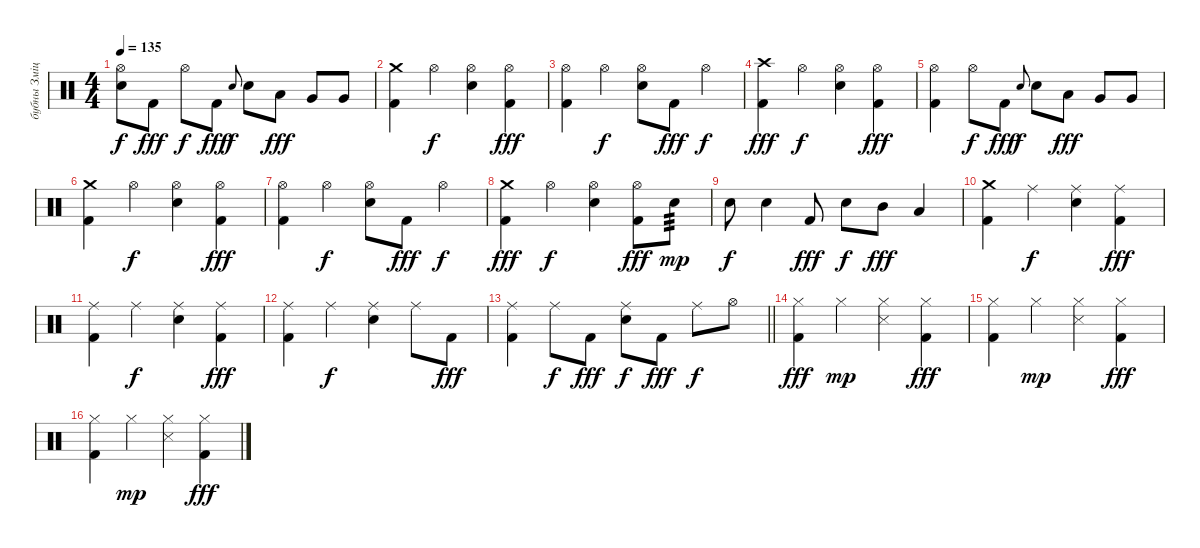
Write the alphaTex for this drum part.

\track ("бубны Змiцер" "бубны Змiц") {solo instrument percussion}
\staff {score}
\articulation defaults
\ts (4 4)
\tempo 135
\clef neutral
\ks c
("Hi-Hat (open)" "Electric Snare (hit)").8{dy f} "Kick (hit) 2".8{dy fff} "Hi-Hat (open)".8{dy f} "Kick (hit) 2".8{dy fff} "Electric Snare (hit)".8{gr onbeat dy f} "Electric Snare (hit)".8 "Low Tom (hit)".8{dy fff} "Very Low Tom (hit)".8 "Very Low Tom (hit)".8 |
("Crash medium (hit)" "Kick (hit) 2").4 "Hi-Hat (open)".4{dy f} ("Hi-Hat (open)" "Electric Snare (hit)").4 ("Hi-Hat (open)" "Kick (hit) 2").4{dy fff} |
("Hi-Hat (open)" "Kick (hit) 2").4 "Hi-Hat (open)".4{dy f} ("Hi-Hat (open)" "Electric Snare (hit)").8 "Kick (hit) 2".8{dy fff} "Hi-Hat (open)".4{dy f} |
("Crash high (hit)" "Kick (hit) 2").4{dy fff} "Hi-Hat (open)".4{dy f} ("Hi-Hat (open)" "Electric Snare (hit)").4 ("Hi-Hat (open)" "Kick (hit) 2").4{dy fff} |
("Hi-Hat (open)" "Kick (hit) 2").4 "Hi-Hat (open)".8{dy f} "Kick (hit) 2".8{dy fff} "Electric Snare (hit)".8{gr onbeat dy f} "Electric Snare (hit)".8 "Low Tom (hit)".8{dy fff} "Very Low Tom (hit)".8 "Very Low Tom (hit)".8 |
("Crash medium (hit)" "Kick (hit) 2").4 "Hi-Hat (open)".4{dy f} ("Hi-Hat (open)" "Electric Snare (hit)").4 ("Hi-Hat (open)" "Kick (hit) 2").4{dy fff} |
("Hi-Hat (open)" "Kick (hit) 2").4 "Hi-Hat (open)".4{dy f} ("Hi-Hat (open)" "Electric Snare (hit)").8 "Kick (hit) 2".8{dy fff} "Hi-Hat (open)".4{dy f} |
("Crash medium (hit)" "Kick (hit) 2").4{dy fff} "Hi-Hat (open)".4{dy f} ("Hi-Hat (open)" "Electric Snare (hit)").4 ("Hi-Hat (open)" "Kick (hit) 2").8{dy fff} "Electric Snare (hit)".8{tp 3 dy mp} |
"Electric Snare (hit)".8{dy f} "Electric Snare (hit)".4 "Kick (hit) 2".8{dy fff} "Electric Snare (hit)".8{dy f} "Mid Tom (hit)".8{dy fff} "Low Tom (hit)".4 |
("Crash medium (hit)" "Kick (hit) 2").4 "Ride (middle)".4{dy f} ("Ride (middle)" "Electric Snare (hit)").4 ("Ride (middle)" "Kick (hit) 2").4{dy fff} |
("Ride (middle)" "Kick (hit) 2").4 "Ride (middle)".4{dy f} ("Ride (middle)" "Electric Snare (hit)").4 ("Ride (middle)" "Kick (hit) 2").4{dy fff} |
("Ride (middle)" "Kick (hit) 2").4 "Ride (middle)".4{dy f} ("Ride (middle)" "Electric Snare (hit)").4 "Ride (middle)".8 "Kick (hit) 2".8{dy fff} |
\barLineRight lightlight
("Ride (middle)" "Kick (hit) 2").4 "Ride (middle)".8{dy f} "Kick (hit) 2".8{dy fff} ("Ride (middle)" "Electric Snare (hit)").8{dy f} "Kick (hit) 2".8{dy fff} "Ride (middle)".8{dy f} "Hi-Hat (open)".8 |
("Hi-Hat (closed)" "Kick (hit) 2").4{dy fff} "Hi-Hat (closed)".4{dy mp} ("Hi-Hat (closed)" "Snare (side stick) 3").4 ("Hi-Hat (closed)" "Kick (hit) 2").4{dy fff} |
("Hi-Hat (closed)" "Kick (hit) 2").4 "Hi-Hat (closed)".4{dy mp} ("Hi-Hat (closed)" "Snare (side stick) 3").4 ("Hi-Hat (closed)" "Kick (hit) 2").4{dy fff} |
("Hi-Hat (closed)" "Kick (hit) 2").4 "Hi-Hat (closed)".4{dy mp} ("Hi-Hat (closed)" "Snare (side stick) 3").4 ("Hi-Hat (closed)" "Kick (hit) 2").4{dy fff}
